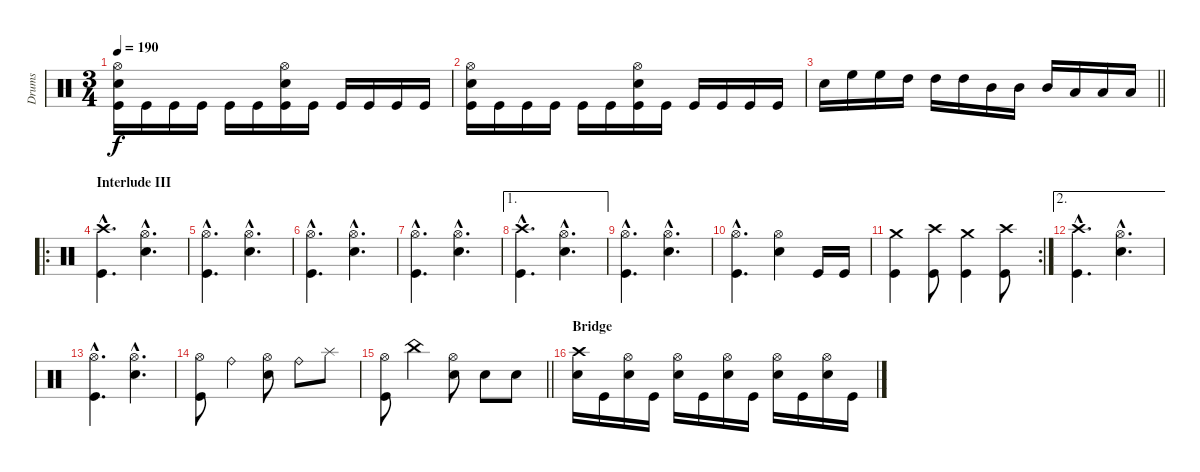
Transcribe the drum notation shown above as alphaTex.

\track ("Drums" "Drums") {instrument percussion}
\staff {score}
\articulation defaults
\ts (3 4)
\tempo 190
\clef neutral
\ks c
("Hi-Hat (open)" "Electric Snare (hit)" "Kick (hit)").16{dy f} "Kick (hit)".16 "Kick (hit)".16 "Kick (hit)".16 "Kick (hit)".16 "Kick (hit)".16 ("Hi-Hat (open)" "Electric Snare (hit)" "Kick (hit)").16 "Kick (hit)".16 "Kick (hit)".16 "Kick (hit)".16 "Kick (hit)".16 "Kick (hit)".16 |
("Hi-Hat (open)" "Electric Snare (hit)" "Kick (hit)").16 "Kick (hit)".16 "Kick (hit)".16 "Kick (hit)".16 "Kick (hit)".16 "Kick (hit)".16 ("Hi-Hat (open)" "Electric Snare (hit)" "Kick (hit)").16 "Kick (hit)".16 "Kick (hit)".16 "Kick (hit)".16 "Kick (hit)".16 "Kick (hit)".16 |
\barLineRight lightlight "Electric Snare (hit)".16 "High Floor Tom (hit)".16 "High Floor Tom (hit)".16 "High Tom (hit)".16 "High Tom (hit)".16 "High Tom (hit)".16 "Mid Tom (hit)".16 "Mid Tom (hit)".16 "Mid Tom (hit)".16 "Low Tom (hit)".16 "Low Tom (hit)".16 "Low Tom (hit)".16
|
\ro
\section ("" "Interlude III")
("Crash high (hit)"{hac} "Kick (hit)"{hac}).4{d} ("Hi-Hat (open)"{hac} "Electric Snare (hit)"{hac}).4{d} |
("Hi-Hat (open)"{hac} "Kick (hit)"{hac}).4{d} ("Hi-Hat (open)"{hac} "Electric Snare (hit)"{hac}).4{d} |
("Hi-Hat (open)"{hac} "Kick (hit)"{hac}).4{d} ("Hi-Hat (open)"{hac} "Electric Snare (hit)"{hac}).4{d} |
("Hi-Hat (open)"{hac} "Kick (hit)"{hac}).4{d} ("Hi-Hat (open)"{hac} "Electric Snare (hit)"{hac}).4{d} |
\ae 1
("Crash high (hit)"{hac} "Kick (hit)"{hac}).4{d} ("Hi-Hat (open)"{hac} "Electric Snare (hit)"{hac}).4{d} |
("Hi-Hat (open)"{hac} "Kick (hit)"{hac}).4{d} ("Hi-Hat (open)"{hac} "Electric Snare (hit)"{hac}).4{d} |
("Hi-Hat (open)"{hac} "Kick (hit)"{hac}).4{d} ("Hi-Hat (open)" "Electric Snare (hit)").4 "Kick (hit)".16 "Kick (hit)".16 |
\rc 2
("Crash medium (hit)" "Kick (hit)").4 ("Crash high (hit)" "Kick (hit)").8 ("Crash medium (hit)" "Kick (hit)").4 ("Crash high (hit)" "Kick (hit)").8 |
\ae 2
("Crash high (hit)"{hac} "Kick (hit)"{hac}).4{d} ("Hi-Hat (open)"{hac} "Electric Snare (hit)"{hac}).4{d} |
("Hi-Hat (open)"{hac} "Kick (hit)"{hac}).4{d} ("Hi-Hat (open)"{hac} "Electric Snare (hit)"{hac}).4{d} |
("Hi-Hat (open)" "Kick (hit)").8 "Ride (bell)".4 ("Hi-Hat (open)" "Electric Snare (hit)").8 "Ride (bell)".8 "Splash (hit)".8 |
\barLineRight lightlight
("Hi-Hat (open)" "Kick (hit)").8 "China (hit)".4 ("Hi-Hat (open)" "Electric Snare (hit)").8 "Electric Snare (hit)".8 "Electric Snare (hit)".8 |
\section ("" "Bridge")
("Crash high (hit)" "Snare (hit) 2").16 "Kick (hit)".16 ("Hi-Hat (open)" "Snare (hit) 2").16 "Kick (hit)".16 ("Hi-Hat (open)" "Snare (hit) 2").16 "Kick (hit)".16 ("Hi-Hat (open)" "Snare (hit) 2").16 "Kick (hit)".16 ("Hi-Hat (open)" "Snare (hit) 2").16 "Kick (hit)".16 ("Hi-Hat (open)" "Snare (hit) 2").16 "Kick (hit)".16
